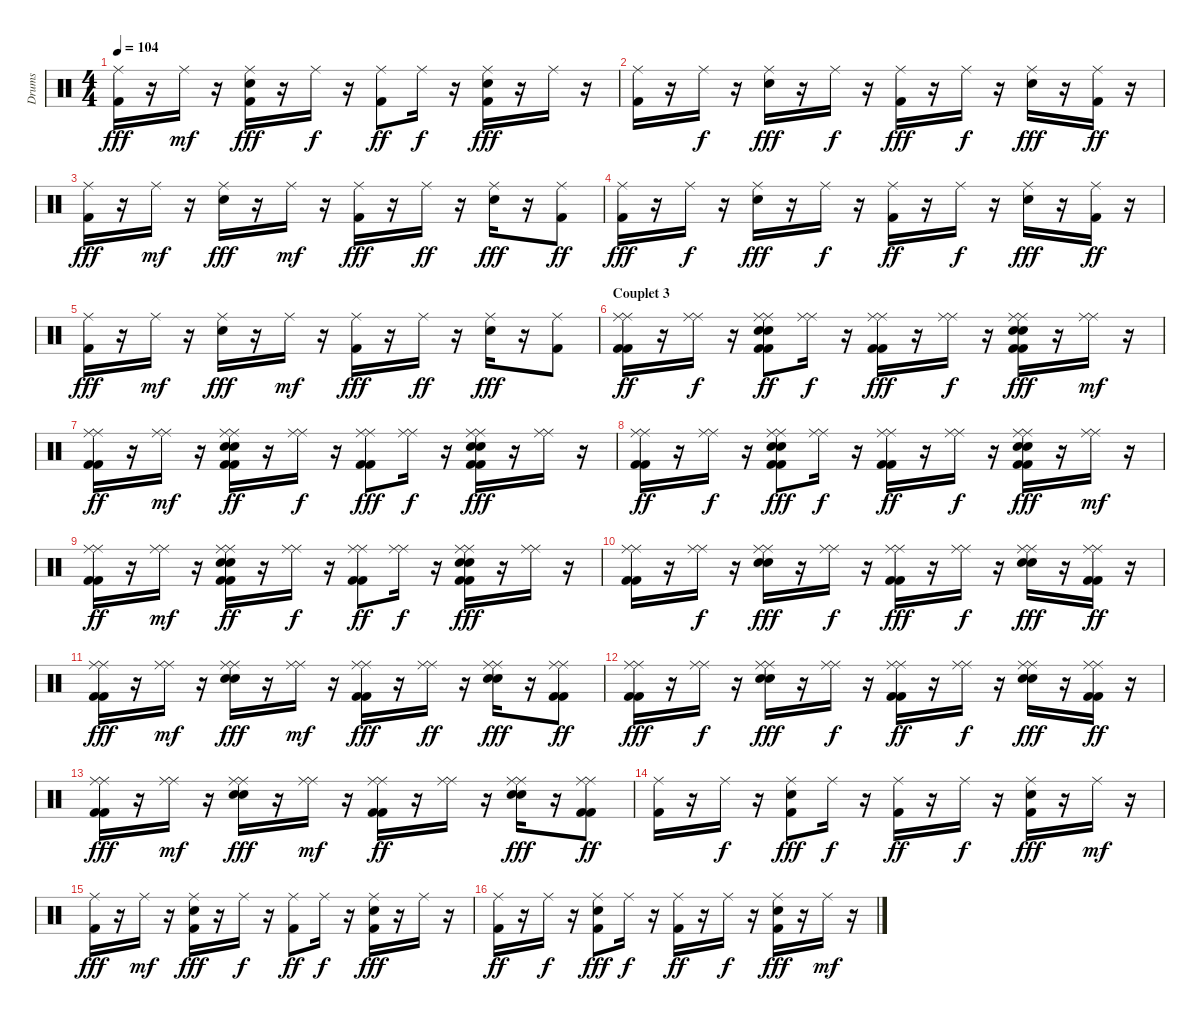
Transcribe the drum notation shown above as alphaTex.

\track ("Drums" "Drums") {instrument percussion}
\staff {score}
\articulation defaults
\ts (4 4)
\tempo 104
\clef neutral
\ks c
("Ride (middle)" "Kick (hit) 2").16{dy fff} r.16 "Ride (middle)".16{dy mf} r.16 ("Snare (hit) 2" "Ride (middle)" "Kick (hit) 2").16{dy fff} r.16 "Ride (middle)".16{dy f} r.16 ("Kick (hit) 2" "Ride (middle)").8{dy ff} "Ride (middle)".16{dy f} r.16 ("Snare (hit) 2" "Ride (middle)" "Kick (hit) 2").16{dy fff} r.16 "Ride (middle)".16 r.16 |
("Ride (middle)" "Kick (hit) 2").16 r.16 "Ride (middle)".16{dy f} r.16 ("Ride (middle)" "Snare (hit) 2").16{dy fff} r.16 "Ride (middle)".16{dy f} r.16 ("Ride (middle)" "Kick (hit) 2").16{dy fff} r.16 "Ride (middle)".16{dy f} r.16 ("Ride (middle)" "Snare (hit) 2").16{dy fff} r.16 ("Kick (hit) 2" "Ride (middle)").16{dy ff} r.16 |
("Ride (middle)" "Kick (hit) 2").16{dy fff} r.16 "Ride (middle)".16{dy mf} r.16 ("Snare (hit) 2" "Ride (middle)").16{dy fff} r.16 "Ride (middle)".16{dy mf} r.16 ("Ride (middle)" "Kick (hit) 2").16{dy fff} r.16 "Ride (middle)".16{dy ff} r.16 ("Snare (hit) 2" "Ride (middle)").16{dy fff} r.16 ("Ride (middle)" "Kick (hit) 2").8{dy ff} |
("Ride (middle)" "Kick (hit) 2").16{dy fff} r.16 "Ride (middle)".16{dy f} r.16 ("Snare (hit) 2" "Ride (middle)").16{dy fff} r.16 "Ride (middle)".16{dy f} r.16 ("Kick (hit) 2" "Ride (middle)").16{dy ff} r.16 "Ride (middle)".16{dy f} r.16 ("Ride (middle)" "Snare (hit) 2").16{dy fff} r.16 ("Kick (hit) 2" "Ride (middle)").16{dy ff} r.16 |
("Ride (middle)" "Kick (hit) 2").16{dy fff} r.16 "Ride (middle)".16{dy mf} r.16 ("Snare (hit) 2" "Ride (middle)").16{dy fff} r.16 "Ride (middle)".16{dy mf} r.16 ("Ride (middle)" "Kick (hit) 2").16{dy fff} r.16 "Ride (middle)".16{dy ff} r.16 ("Ride (middle)" "Snare (hit) 2").16{dy fff} r.16 ("Kick (hit) 2" "Ride (middle)").8 |
\section ("" "Couplet 3")
("Ride (middle)" "Kick (hit) 2" "Kick (hit) 2" "Ride (middle)").16{dy ff} r.16 ("Ride (middle)" "Ride (middle)").16{dy f} r.16 ("Snare (hit) 2" "Kick (hit) 2" "Kick (hit) 2" "Snare (hit) 2" "Ride (middle)" "Ride (middle)").8{dy ff} ("Ride (middle)" "Ride (middle)").16{dy f} r.16 ("Ride (middle)" "Ride (middle)" "Kick (hit) 2" "Kick (hit) 2").16{dy fff} r.16 ("Ride (middle)" "Ride (middle)").16{dy f} r.16 ("Snare (hit) 2" "Snare (hit) 2" "Kick (hit) 2" "Kick (hit) 2" "Ride (middle)" "Ride (middle)").16{dy fff} r.16 ("Ride (middle)" "Ride (middle)").16{dy mf} r.16 |
("Kick (hit) 2" "Kick (hit) 2" "Ride (middle)" "Ride (middle)").16{dy ff} r.16 ("Ride (middle)" "Ride (middle)").16{dy mf} r.16 ("Kick (hit) 2" "Kick (hit) 2" "Snare (hit) 2" "Ride (middle)" "Snare (hit) 2" "Ride (middle)").16{dy ff} r.16 ("Ride (middle)" "Ride (middle)").16{dy f} r.16 ("Kick (hit) 2" "Ride (middle)" "Ride (middle)" "Kick (hit) 2").8{dy fff} ("Ride (middle)" "Ride (middle)").16{dy f} r.16 ("Kick (hit) 2" "Ride (middle)" "Ride (middle)" "Snare (hit) 2" "Snare (hit) 2" "Kick (hit) 2").16{dy fff} r.16 ("Ride (middle)" "Ride (middle)").16 r.16 |
("Kick (hit) 2" "Kick (hit) 2" "Ride (middle)" "Ride (middle)").16{dy ff} r.16 ("Ride (middle)" "Ride (middle)").16{dy f} r.16 ("Snare (hit) 2" "Snare (hit) 2" "Ride (middle)" "Ride (middle)" "Kick (hit) 2" "Kick (hit) 2").8{dy fff} ("Ride (middle)" "Ride (middle)").16{dy f} r.16 ("Ride (middle)" "Kick (hit) 2" "Kick (hit) 2" "Ride (middle)").16{dy ff} r.16 ("Ride (middle)" "Ride (middle)").16{dy f} r.16 ("Snare (hit) 2" "Ride (middle)" "Ride (middle)" "Kick (hit) 2" "Snare (hit) 2" "Kick (hit) 2").16{dy fff} r.16 ("Ride (middle)" "Ride (middle)").16{dy mf} r.16 |
("Kick (hit) 2" "Kick (hit) 2" "Ride (middle)" "Ride (middle)").16{dy ff} r.16 ("Ride (middle)" "Ride (middle)").16{dy mf} r.16 ("Kick (hit) 2" "Ride (middle)" "Snare (hit) 2" "Snare (hit) 2" "Kick (hit) 2" "Ride (middle)").16{dy ff} r.16 ("Ride (middle)" "Ride (middle)").16{dy f} r.16 ("Kick (hit) 2" "Kick (hit) 2" "Ride (middle)" "Ride (middle)").8{dy ff} ("Ride (middle)" "Ride (middle)").16{dy f} r.16 ("Snare (hit) 2" "Kick (hit) 2" "Ride (middle)" "Kick (hit) 2" "Snare (hit) 2" "Ride (middle)").16{dy fff} r.16 ("Ride (middle)" "Ride (middle)").16 r.16 |
("Kick (hit) 2" "Kick (hit) 2" "Ride (middle)" "Ride (middle)").16 r.16 ("Ride (middle)" "Ride (middle)").16{dy f} r.16 ("Snare (hit) 2" "Snare (hit) 2" "Ride (middle)" "Ride (middle)").16{dy fff} r.16 ("Ride (middle)" "Ride (middle)").16{dy f} r.16 ("Ride (middle)" "Ride (middle)" "Kick (hit) 2" "Kick (hit) 2").16{dy fff} r.16 ("Ride (middle)" "Ride (middle)").16{dy f} r.16 ("Ride (middle)" "Ride (middle)" "Snare (hit) 2" "Snare (hit) 2").16{dy fff} r.16 ("Ride (middle)" "Kick (hit) 2" "Ride (middle)" "Kick (hit) 2").16{dy ff} r.16 |
("Kick (hit) 2" "Kick (hit) 2" "Ride (middle)" "Ride (middle)").16{dy fff} r.16 ("Ride (middle)" "Ride (middle)").16{dy mf} r.16 ("Snare (hit) 2" "Snare (hit) 2" "Ride (middle)" "Ride (middle)").16{dy fff} r.16 ("Ride (middle)" "Ride (middle)").16{dy mf} r.16 ("Ride (middle)" "Ride (middle)" "Kick (hit) 2" "Kick (hit) 2").16{dy fff} r.16 ("Ride (middle)" "Ride (middle)").16{dy ff} r.16 ("Snare (hit) 2" "Ride (middle)" "Ride (middle)" "Snare (hit) 2").16{dy fff} r.16 ("Ride (middle)" "Ride (middle)" "Kick (hit) 2" "Kick (hit) 2").8{dy ff} |
("Ride (middle)" "Ride (middle)" "Kick (hit) 2" "Kick (hit) 2").16{dy fff} r.16 ("Ride (middle)" "Ride (middle)").16{dy f} r.16 ("Ride (middle)" "Snare (hit) 2" "Ride (middle)" "Snare (hit) 2").16{dy fff} r.16 ("Ride (middle)" "Ride (middle)").16{dy f} r.16 ("Kick (hit) 2" "Kick (hit) 2" "Ride (middle)" "Ride (middle)").16{dy ff} r.16 ("Ride (middle)" "Ride (middle)").16{dy f} r.16 ("Snare (hit) 2" "Ride (middle)" "Ride (middle)" "Snare (hit) 2").16{dy fff} r.16 ("Kick (hit) 2" "Ride (middle)" "Ride (middle)" "Kick (hit) 2").16{dy ff} r.16 |
("Kick (hit) 2" "Kick (hit) 2" "Ride (middle)" "Ride (middle)").16{dy fff} r.16 ("Ride (middle)" "Ride (middle)").16{dy mf} r.16 ("Ride (middle)" "Snare (hit) 2" "Snare (hit) 2" "Ride (middle)").16{dy fff} r.16 ("Ride (middle)" "Ride (middle)").16{dy mf} r.16 ("Ride (middle)" "Kick (hit) 2" "Kick (hit) 2" "Ride (middle)").16{dy ff} r.16 ("Ride (middle)" "Ride (middle)").16 r.16 ("Ride (middle)" "Ride (middle)" "Snare (hit) 2" "Snare (hit) 2").16{dy fff} r.16 ("Ride (middle)" "Kick (hit) 2" "Ride (middle)" "Kick (hit) 2").8{dy ff} |
("Ride (middle)" "Kick (hit) 2").16 r.16 "Ride (middle)".16{dy f} r.16 ("Kick (hit) 2" "Ride (middle)" "Snare (hit) 2").8{dy fff} "Ride (middle)".16{dy f} r.16 ("Kick (hit) 2" "Ride (middle)").16{dy ff} r.16 "Ride (middle)".16{dy f} r.16 ("Ride (middle)" "Snare (hit) 2" "Kick (hit) 2").16{dy fff} r.16 "Ride (middle)".16{dy mf} r.16 |
("Ride (middle)" "Kick (hit) 2").16{dy fff} r.16 "Ride (middle)".16{dy mf} r.16 ("Kick (hit) 2" "Ride (middle)" "Snare (hit) 2").16{dy fff} r.16 "Ride (middle)".16{dy f} r.16 ("Kick (hit) 2" "Ride (middle)").8{dy ff} "Ride (middle)".16{dy f} r.16 ("Kick (hit) 2" "Snare (hit) 2" "Ride (middle)").16{dy fff} r.16 "Ride (middle)".16 r.16 |
("Ride (middle)" "Kick (hit) 2").16{dy ff} r.16 "Ride (middle)".16{dy f} r.16 ("Ride (middle)" "Snare (hit) 2" "Kick (hit) 2").8{dy fff} "Ride (middle)".16{dy f} r.16 ("Kick (hit) 2" "Ride (middle)").16{dy ff} r.16 "Ride (middle)".16{dy f} r.16 ("Ride (middle)" "Kick (hit) 2" "Snare (hit) 2").16{dy fff} r.16 "Ride (middle)".16{dy mf} r.16
